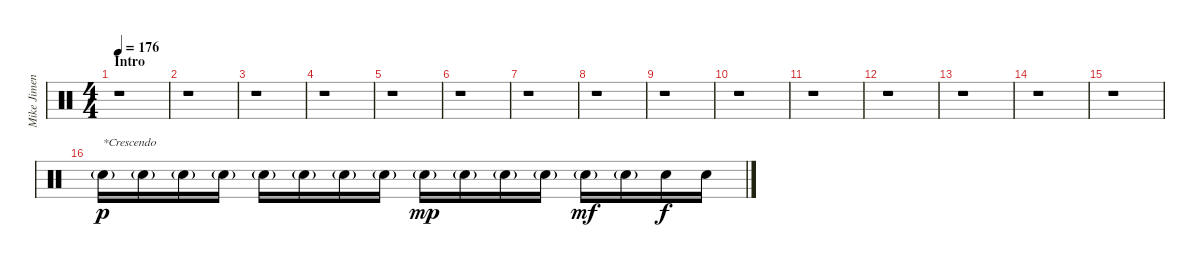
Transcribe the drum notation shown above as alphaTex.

\track ("Mike Jimenez II" "Mike Jimen") {instrument percussion}
\staff {score}
\articulation defaults
\ts (4 4)
\section ("" "Intro")
\tempo 176
\clef neutral
\ks c
r.1{dy p} |
r.1 |
r.1 |
r.1 |
r.1 |
r.1 |
r.1 |
r.1 |
r.1 |
r.1 |
r.1 |
r.1 |
r.1 |
r.1 |
r.1 |
"Electric Snare (hit)"{g}.16{txt "*Crescendo"} "Electric Snare (hit)"{g}.16 "Electric Snare (hit)"{g}.16 "Electric Snare (hit)"{g}.16 "Electric Snare (hit)"{g}.16 "Electric Snare (hit)"{g}.16 "Electric Snare (hit)"{g}.16 "Electric Snare (hit)"{g}.16 "Electric Snare (hit)"{g}.16{dy mp} "Electric Snare (hit)"{g}.16 "Electric Snare (hit)"{g}.16 "Electric Snare (hit)"{g}.16 "Electric Snare (hit)"{g}.16{dy mf} "Electric Snare (hit)"{g}.16 "Electric Snare (hit)".16{dy f} "Electric Snare (hit)".16
